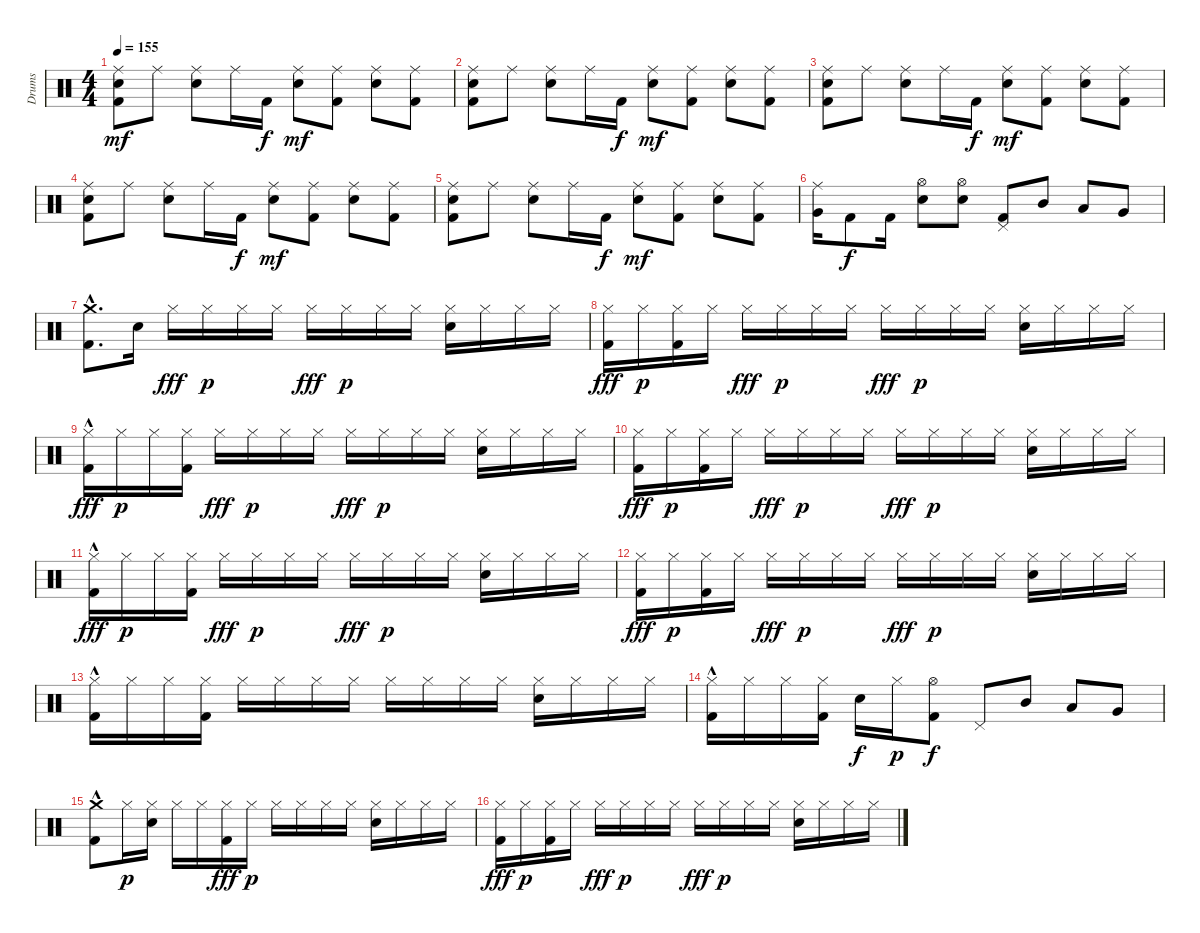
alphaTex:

\track ("Drums" "Drums") {instrument percussion}
\staff {score}
\articulation defaults
\ts (4 4)
\tempo 155
\clef neutral
\ks c
("Kick (hit) 2" "Snare (hit) 2" "Ride (middle)").8{dy mf} "Ride (middle)".8 ("Snare (hit) 2" "Ride (middle)").8 "Ride (middle)".16 "Kick (hit) 2".16{dy f} ("Snare (hit) 2" "Ride (middle)").8{dy mf} ("Kick (hit) 2" "Ride (middle)").8 ("Snare (hit) 2" "Ride (middle)").8 ("Kick (hit) 2" "Ride (middle)").8 |
("Kick (hit) 2" "Snare (hit) 2" "Ride (middle)").8 "Ride (middle)".8 ("Snare (hit) 2" "Ride (middle)").8 "Ride (middle)".16 "Kick (hit) 2".16{dy f} ("Snare (hit) 2" "Ride (middle)").8{dy mf} ("Kick (hit) 2" "Ride (middle)").8 ("Snare (hit) 2" "Ride (middle)").8 ("Kick (hit) 2" "Ride (middle)").8 |
("Kick (hit) 2" "Snare (hit) 2" "Ride (middle)").8 "Ride (middle)".8 ("Snare (hit) 2" "Ride (middle)").8 "Ride (middle)".16 "Kick (hit) 2".16{dy f} ("Snare (hit) 2" "Ride (middle)").8{dy mf} ("Kick (hit) 2" "Ride (middle)").8 ("Snare (hit) 2" "Ride (middle)").8 ("Kick (hit) 2" "Ride (middle)").8 |
("Kick (hit) 2" "Snare (hit) 2" "Ride (middle)").8 "Ride (middle)".8 ("Snare (hit) 2" "Ride (middle)").8 "Ride (middle)".16 "Kick (hit) 2".16{dy f} ("Snare (hit) 2" "Ride (middle)").8{dy mf} ("Kick (hit) 2" "Ride (middle)").8 ("Snare (hit) 2" "Ride (middle)").8 ("Kick (hit) 2" "Ride (middle)").8 |
("Kick (hit) 2" "Snare (hit) 2" "Ride (middle)").8 "Ride (middle)".8 ("Snare (hit) 2" "Ride (middle)").8 "Ride (middle)".16 "Kick (hit) 2".16{dy f} ("Snare (hit) 2" "Ride (middle)").8{dy mf} ("Kick (hit) 2" "Ride (middle)").8 ("Snare (hit) 2" "Ride (middle)").8 ("Kick (hit) 2" "Ride (middle)").8 |
("Very Low Tom (hit)" "Ride (middle)").16 "Kick (hit) 2".8{dy f} "Kick (hit) 2".16 ("Snare (hit) 2" "Hi-Hat (open)").8 ("Snare (hit) 2" "Hi-Hat (open)").8 ("Pedal Hi-Hat (hit)" "Kick (hit) 2").8 "Mid Tom (hit)".8 "Low Tom (hit)".8 "Very Low Tom (hit)".8 |
("Crash medium (hit)" "Kick (hit) 2"{hac}).8{d} "Snare (hit)".16 "Hi-Hat (closed)".16{dy fff} "Hi-Hat (closed)".16{dy p} "Hi-Hat (closed)".16 "Hi-Hat (closed)".16 "Hi-Hat (closed)".16{dy fff} "Hi-Hat (closed)".16{dy p} "Hi-Hat (closed)".16 "Hi-Hat (closed)".16 ("Hi-Hat (closed)" "Snare (hit) 2").16 "Hi-Hat (closed)".16 "Hi-Hat (closed)".16 "Hi-Hat (closed)".16 |
("Hi-Hat (closed)" "Kick (hit) 2").16{dy fff} "Hi-Hat (closed)".16{dy p} ("Hi-Hat (closed)" "Kick (hit) 2").16 "Hi-Hat (closed)".16 "Hi-Hat (closed)".16{dy fff} "Hi-Hat (closed)".16{dy p} "Hi-Hat (closed)".16 "Hi-Hat (closed)".16 "Hi-Hat (closed)".16{dy fff} "Hi-Hat (closed)".16{dy p} "Hi-Hat (closed)".16 "Hi-Hat (closed)".16 ("Hi-Hat (closed)" "Snare (hit) 2").16 "Hi-Hat (closed)".16 "Hi-Hat (closed)".16 "Hi-Hat (closed)".16 |
("Hi-Hat (closed)" "Kick (hit) 2"{hac}).16{dy fff} "Hi-Hat (closed)".16{dy p} "Hi-Hat (closed)".16 ("Hi-Hat (closed)" "Kick (hit) 2").16 "Hi-Hat (closed)".16{dy fff} "Hi-Hat (closed)".16{dy p} "Hi-Hat (closed)".16 "Hi-Hat (closed)".16 "Hi-Hat (closed)".16{dy fff} "Hi-Hat (closed)".16{dy p} "Hi-Hat (closed)".16 "Hi-Hat (closed)".16 ("Hi-Hat (closed)" "Snare (hit) 2").16 "Hi-Hat (closed)".16 "Hi-Hat (closed)".16 "Hi-Hat (closed)".16 |
("Hi-Hat (closed)" "Kick (hit) 2").16{dy fff} "Hi-Hat (closed)".16{dy p} ("Hi-Hat (closed)" "Kick (hit) 2").16 "Hi-Hat (closed)".16 "Hi-Hat (closed)".16{dy fff} "Hi-Hat (closed)".16{dy p} "Hi-Hat (closed)".16 "Hi-Hat (closed)".16 "Hi-Hat (closed)".16{dy fff} "Hi-Hat (closed)".16{dy p} "Hi-Hat (closed)".16 "Hi-Hat (closed)".16 ("Hi-Hat (closed)" "Snare (hit) 2").16 "Hi-Hat (closed)".16 "Hi-Hat (closed)".16 "Hi-Hat (closed)".16 |
("Hi-Hat (closed)" "Kick (hit) 2"{hac}).16{dy fff} "Hi-Hat (closed)".16{dy p} "Hi-Hat (closed)".16 ("Hi-Hat (closed)" "Kick (hit) 2").16 "Hi-Hat (closed)".16{dy fff} "Hi-Hat (closed)".16{dy p} "Hi-Hat (closed)".16 "Hi-Hat (closed)".16 "Hi-Hat (closed)".16{dy fff} "Hi-Hat (closed)".16{dy p} "Hi-Hat (closed)".16 "Hi-Hat (closed)".16 ("Hi-Hat (closed)" "Snare (hit) 2").16 "Hi-Hat (closed)".16 "Hi-Hat (closed)".16 "Hi-Hat (closed)".16 |
("Hi-Hat (closed)" "Kick (hit) 2").16{dy fff} "Hi-Hat (closed)".16{dy p} ("Hi-Hat (closed)" "Kick (hit) 2").16 "Hi-Hat (closed)".16 "Hi-Hat (closed)".16{dy fff} "Hi-Hat (closed)".16{dy p} "Hi-Hat (closed)".16 "Hi-Hat (closed)".16 "Hi-Hat (closed)".16{dy fff} "Hi-Hat (closed)".16{dy p} "Hi-Hat (closed)".16 "Hi-Hat (closed)".16 ("Hi-Hat (closed)" "Snare (hit) 2").16 "Hi-Hat (closed)".16 "Hi-Hat (closed)".16 "Hi-Hat (closed)".16 |
("Hi-Hat (closed)" "Kick (hit) 2"{hac}).16 "Hi-Hat (closed)".16 "Hi-Hat (closed)".16 ("Hi-Hat (closed)" "Kick (hit) 2").16 "Hi-Hat (closed)".16 "Hi-Hat (closed)".16 "Hi-Hat (closed)".16 "Hi-Hat (closed)".16 "Hi-Hat (closed)".16 "Hi-Hat (closed)".16 "Hi-Hat (closed)".16 "Hi-Hat (closed)".16 ("Hi-Hat (closed)" "Snare (hit) 2").16 "Hi-Hat (closed)".16 "Hi-Hat (closed)".16 "Hi-Hat (closed)".16 |
("Hi-Hat (closed)" "Kick (hit) 2"{hac}).16 "Hi-Hat (closed)".16 "Hi-Hat (closed)".16 ("Hi-Hat (closed)" "Kick (hit) 2").16 "Snare (hit) 2".16{dy f} "Hi-Hat (closed)".16{dy p} ("Kick (hit) 2" "Hi-Hat (open)").8{dy f} "Pedal Hi-Hat (hit)".8 "Mid Tom (hit)".8 "Low Tom (hit)".8 "Very Low Tom (hit)".8 |
("Kick (hit) 2"{hac} "Crash medium (hit)").8 "Hi-Hat (closed)".16{dy p} ("Snare (hit)" "Hi-Hat (closed)").16 "Hi-Hat (closed)".16 "Hi-Hat (closed)".16 ("Hi-Hat (closed)" "Kick (hit) 2").16{dy fff} "Hi-Hat (closed)".16{dy p} "Hi-Hat (closed)".16 "Hi-Hat (closed)".16 "Hi-Hat (closed)".16 "Hi-Hat (closed)".16 ("Hi-Hat (closed)" "Snare (hit) 2").16 "Hi-Hat (closed)".16 "Hi-Hat (closed)".16 "Hi-Hat (closed)".16 |
("Hi-Hat (closed)" "Kick (hit) 2").16{dy fff} "Hi-Hat (closed)".16{dy p} ("Hi-Hat (closed)" "Kick (hit) 2").16 "Hi-Hat (closed)".16 "Hi-Hat (closed)".16{dy fff} "Hi-Hat (closed)".16{dy p} "Hi-Hat (closed)".16 "Hi-Hat (closed)".16 "Hi-Hat (closed)".16{dy fff} "Hi-Hat (closed)".16{dy p} "Hi-Hat (closed)".16 "Hi-Hat (closed)".16 ("Hi-Hat (closed)" "Snare (hit) 2").16 "Hi-Hat (closed)".16 "Hi-Hat (closed)".16 "Hi-Hat (closed)".16
